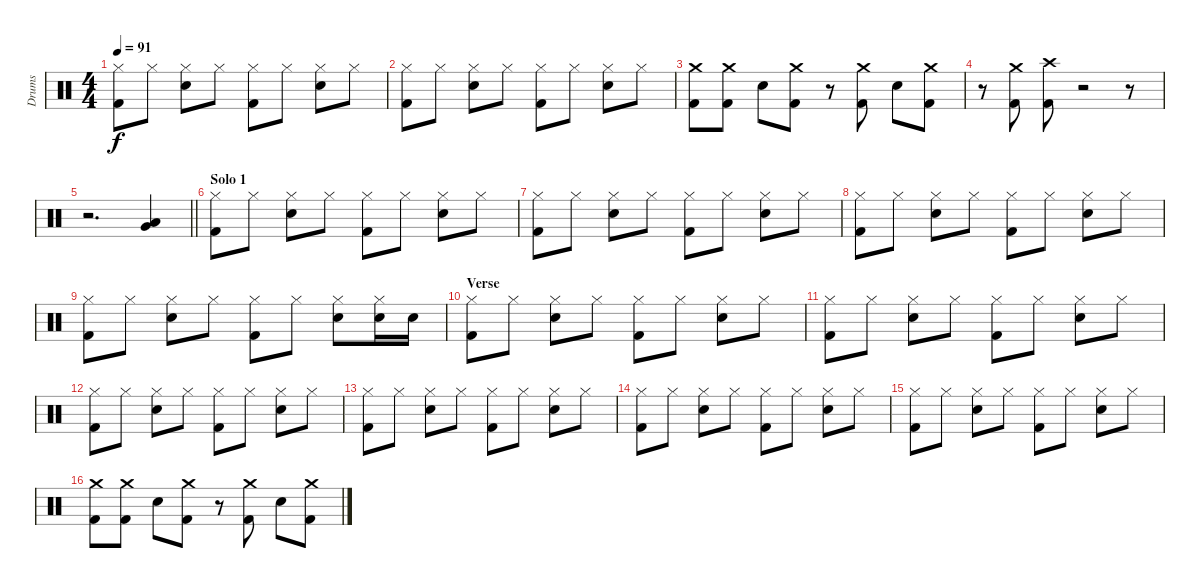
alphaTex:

\track ("Drums" "Drums") {instrument percussion}
\staff {score}
\articulation defaults
\ts (4 4)
\tempo 91
\clef neutral
\ks c
("Hi-Hat (closed)" "Kick (hit) 2").8{dy f} "Hi-Hat (closed)".8 ("Hi-Hat (closed)" "Electric Snare (hit)").8 "Hi-Hat (closed)".8 ("Hi-Hat (closed)" "Kick (hit) 2").8 "Hi-Hat (closed)".8 ("Hi-Hat (closed)" "Electric Snare (hit)").8 "Hi-Hat (closed)".8 |
("Hi-Hat (closed)" "Kick (hit) 2").8 "Hi-Hat (closed)".8 ("Hi-Hat (closed)" "Electric Snare (hit)").8 "Hi-Hat (closed)".8 ("Hi-Hat (closed)" "Kick (hit) 2").8 "Hi-Hat (closed)".8 ("Hi-Hat (closed)" "Electric Snare (hit)").8 "Hi-Hat (closed)".8 |
("Crash medium (hit)" "Kick (hit) 2").8 ("Crash medium (hit)" "Kick (hit) 2").8 "Electric Snare (hit)".8 ("Crash medium (hit)" "Kick (hit) 2").8 r.8 ("Crash medium (hit)" "Kick (hit) 2").8 "Electric Snare (hit)".8 ("Crash medium (hit)" "Kick (hit) 2").8 |
r.8 ("Crash medium (hit)" "Kick (hit) 2").8 ("Crash high (hit)" "Kick (hit) 2").8 r.2 r.8 |
\barLineRight lightlight
r.2{d} ("Very Low Tom (hit)" "Low Floor Tom (hit)").4 |
\section ("" "Solo 1")
("Hi-Hat (closed)" "Kick (hit) 2").8 "Hi-Hat (closed)".8 ("Hi-Hat (closed)" "Electric Snare (hit)").8 "Hi-Hat (closed)".8 ("Hi-Hat (closed)" "Kick (hit) 2").8 "Hi-Hat (closed)".8 ("Hi-Hat (closed)" "Electric Snare (hit)").8 "Hi-Hat (closed)".8 |
("Hi-Hat (closed)" "Kick (hit) 2").8 "Hi-Hat (closed)".8 ("Hi-Hat (closed)" "Electric Snare (hit)").8 "Hi-Hat (closed)".8 ("Hi-Hat (closed)" "Kick (hit) 2").8 "Hi-Hat (closed)".8 ("Hi-Hat (closed)" "Electric Snare (hit)").8 "Hi-Hat (closed)".8 |
("Hi-Hat (closed)" "Kick (hit) 2").8 "Hi-Hat (closed)".8 ("Hi-Hat (closed)" "Electric Snare (hit)").8 "Hi-Hat (closed)".8 ("Hi-Hat (closed)" "Kick (hit) 2").8 "Hi-Hat (closed)".8 ("Hi-Hat (closed)" "Electric Snare (hit)").8 "Hi-Hat (closed)".8 |
("Hi-Hat (closed)" "Kick (hit) 2").8 "Hi-Hat (closed)".8 ("Hi-Hat (closed)" "Electric Snare (hit)").8 "Hi-Hat (closed)".8 ("Hi-Hat (closed)" "Kick (hit) 2").8 "Hi-Hat (closed)".8 ("Hi-Hat (closed)" "Electric Snare (hit)").8 ("Hi-Hat (closed)" "Electric Snare (hit)").16 "Electric Snare (hit)".16 |
\section ("" "Verse")
("Hi-Hat (closed)" "Kick (hit) 2").8 "Hi-Hat (closed)".8 ("Hi-Hat (closed)" "Electric Snare (hit)").8 "Hi-Hat (closed)".8 ("Hi-Hat (closed)" "Kick (hit) 2").8 "Hi-Hat (closed)".8 ("Hi-Hat (closed)" "Electric Snare (hit)").8 "Hi-Hat (closed)".8 |
("Hi-Hat (closed)" "Kick (hit) 2").8 "Hi-Hat (closed)".8 ("Hi-Hat (closed)" "Electric Snare (hit)").8 "Hi-Hat (closed)".8 ("Hi-Hat (closed)" "Kick (hit) 2").8 "Hi-Hat (closed)".8 ("Hi-Hat (closed)" "Electric Snare (hit)").8 "Hi-Hat (closed)".8 |
("Hi-Hat (closed)" "Kick (hit) 2").8 "Hi-Hat (closed)".8 ("Hi-Hat (closed)" "Electric Snare (hit)").8 "Hi-Hat (closed)".8 ("Hi-Hat (closed)" "Kick (hit) 2").8 "Hi-Hat (closed)".8 ("Hi-Hat (closed)" "Electric Snare (hit)").8 "Hi-Hat (closed)".8 |
("Hi-Hat (closed)" "Kick (hit) 2").8 "Hi-Hat (closed)".8 ("Hi-Hat (closed)" "Electric Snare (hit)").8 "Hi-Hat (closed)".8 ("Hi-Hat (closed)" "Kick (hit) 2").8 "Hi-Hat (closed)".8 ("Hi-Hat (closed)" "Electric Snare (hit)").8 "Hi-Hat (closed)".8 |
("Hi-Hat (closed)" "Kick (hit) 2").8 "Hi-Hat (closed)".8 ("Hi-Hat (closed)" "Electric Snare (hit)").8 "Hi-Hat (closed)".8 ("Hi-Hat (closed)" "Kick (hit) 2").8 "Hi-Hat (closed)".8 ("Hi-Hat (closed)" "Electric Snare (hit)").8 "Hi-Hat (closed)".8 |
("Hi-Hat (closed)" "Kick (hit) 2").8 "Hi-Hat (closed)".8 ("Hi-Hat (closed)" "Electric Snare (hit)").8 "Hi-Hat (closed)".8 ("Hi-Hat (closed)" "Kick (hit) 2").8 "Hi-Hat (closed)".8 ("Hi-Hat (closed)" "Electric Snare (hit)").8 "Hi-Hat (closed)".8 |
("Crash medium (hit)" "Kick (hit) 2").8 ("Crash medium (hit)" "Kick (hit) 2").8 "Electric Snare (hit)".8 ("Crash medium (hit)" "Kick (hit) 2").8 r.8 ("Crash medium (hit)" "Kick (hit) 2").8 "Electric Snare (hit)".8 ("Crash medium (hit)" "Kick (hit) 2").8
